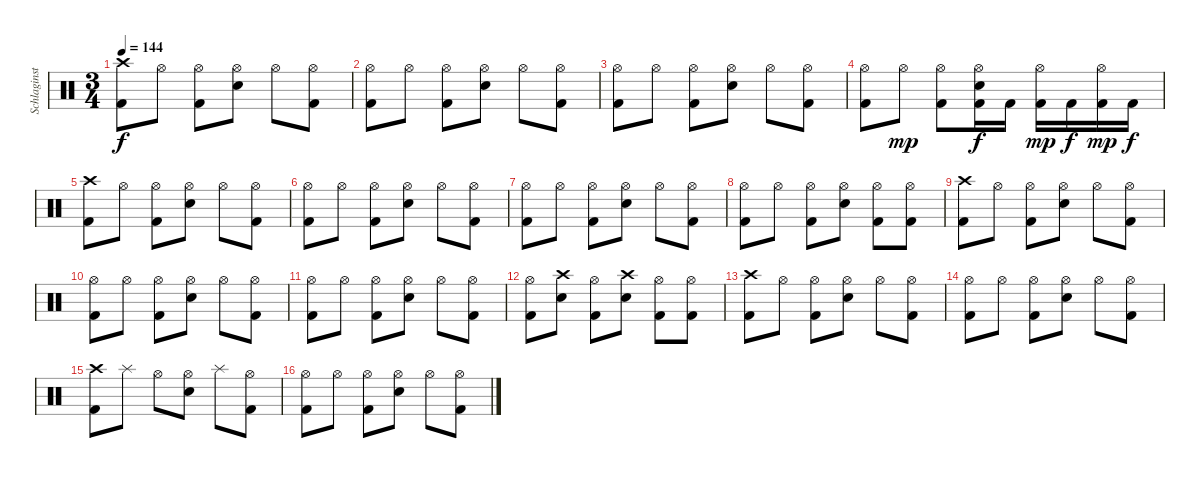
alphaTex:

\track ("Schlaginstrumente - Auswahl" "Schlaginst") {instrument percussion}
\staff {score}
\articulation defaults
\ts (3 4)
\tempo 144
\clef neutral
\ks c
("Crash high (hit)" "Kick (hit) 2").8{dy f} "Hi-Hat (open)".8 ("Hi-Hat (open)" "Kick (hit) 2").8 ("Hi-Hat (open)" "Snare (hit) 2").8 "Hi-Hat (open)".8 ("Hi-Hat (open)" "Kick (hit) 2").8 |
("Hi-Hat (open)" "Kick (hit) 2").8 "Hi-Hat (open)".8 ("Hi-Hat (open)" "Kick (hit) 2").8 ("Hi-Hat (open)" "Snare (hit) 2").8 "Hi-Hat (open)".8 ("Hi-Hat (open)" "Kick (hit) 2").8 |
("Hi-Hat (open)" "Kick (hit) 2").8 "Hi-Hat (open)".8 ("Hi-Hat (open)" "Kick (hit) 2").8 ("Hi-Hat (open)" "Snare (hit) 2").8 "Hi-Hat (open)".8 ("Hi-Hat (open)" "Kick (hit) 2").8 |
("Hi-Hat (open)" "Kick (hit) 2").8 "Hi-Hat (open)".8{dy mp} ("Hi-Hat (open)" "Kick (hit) 2").8 ("Hi-Hat (open)" "Snare (hit) 2" "Kick (hit) 2").16{dy f} "Kick (hit) 2".16 ("Hi-Hat (open)" "Kick (hit) 2").16{dy mp} "Kick (hit) 2".16{dy f} ("Hi-Hat (open)" "Kick (hit) 2").16{dy mp} "Kick (hit) 2".16{dy f} |
("Crash high (hit)" "Kick (hit) 2").8 "Hi-Hat (open)".8 ("Hi-Hat (open)" "Kick (hit) 2").8 ("Hi-Hat (open)" "Snare (hit) 2").8 "Hi-Hat (open)".8 ("Hi-Hat (open)" "Kick (hit) 2").8 |
("Hi-Hat (open)" "Kick (hit) 2").8 "Hi-Hat (open)".8 ("Hi-Hat (open)" "Kick (hit) 2").8 ("Hi-Hat (open)" "Snare (hit) 2").8 "Hi-Hat (open)".8 ("Hi-Hat (open)" "Kick (hit) 2").8 |
("Hi-Hat (open)" "Kick (hit) 2").8 "Hi-Hat (open)".8 ("Hi-Hat (open)" "Kick (hit) 2").8 ("Hi-Hat (open)" "Snare (hit) 2").8 "Hi-Hat (open)".8 ("Hi-Hat (open)" "Kick (hit) 2").8 |
("Hi-Hat (open)" "Kick (hit) 2").8 "Hi-Hat (open)".8 ("Hi-Hat (open)" "Kick (hit) 2").8 ("Hi-Hat (open)" "Snare (hit) 2").8 ("Hi-Hat (open)" "Kick (hit) 2").8 ("Hi-Hat (open)" "Kick (hit) 2").8 |
("Crash high (hit)" "Kick (hit) 2").8 "Hi-Hat (open)".8 ("Hi-Hat (open)" "Kick (hit) 2").8 ("Hi-Hat (open)" "Snare (hit) 2").8 "Hi-Hat (open)".8 ("Hi-Hat (open)" "Kick (hit) 2").8 |
("Hi-Hat (open)" "Kick (hit) 2").8 "Hi-Hat (open)".8 ("Hi-Hat (open)" "Kick (hit) 2").8 ("Hi-Hat (open)" "Snare (hit) 2").8 "Hi-Hat (open)".8 ("Hi-Hat (open)" "Kick (hit) 2").8 |
("Hi-Hat (open)" "Kick (hit) 2").8 "Hi-Hat (open)".8 ("Hi-Hat (open)" "Kick (hit) 2").8 ("Hi-Hat (open)" "Snare (hit) 2").8 "Hi-Hat (open)".8 ("Hi-Hat (open)" "Kick (hit) 2").8 |
("Hi-Hat (open)" "Kick (hit) 2").8 ("Crash high (hit)" "Snare (hit) 2").8 ("Hi-Hat (open)" "Kick (hit) 2").8 ("Crash high (hit)" "Snare (hit) 2").8 ("Hi-Hat (open)" "Kick (hit) 2").8 ("Hi-Hat (open)" "Kick (hit) 2").8 |
("Crash high (hit)" "Kick (hit) 2").8 "Hi-Hat (open)".8 ("Hi-Hat (open)" "Kick (hit) 2").8 ("Hi-Hat (open)" "Snare (hit) 2").8 "Hi-Hat (open)".8 ("Hi-Hat (open)" "Kick (hit) 2").8 |
("Hi-Hat (open)" "Kick (hit) 2").8 "Hi-Hat (open)".8 ("Hi-Hat (open)" "Kick (hit) 2").8 ("Hi-Hat (open)" "Snare (hit) 2").8 "Hi-Hat (open)".8 ("Hi-Hat (open)" "Kick (hit) 2").8 |
("Crash high (hit)" "Kick (hit) 2").8 "Splash (hit)".8 "Hi-Hat (open)".8 ("Hi-Hat (open)" "Snare (hit) 2").8 "Splash (hit)".8 ("Hi-Hat (open)" "Kick (hit) 2").8 |
("Hi-Hat (open)" "Kick (hit) 2").8 "Hi-Hat (open)".8 ("Hi-Hat (open)" "Kick (hit) 2").8 ("Hi-Hat (open)" "Snare (hit) 2").8 "Hi-Hat (open)".8 ("Hi-Hat (open)" "Kick (hit) 2").8
